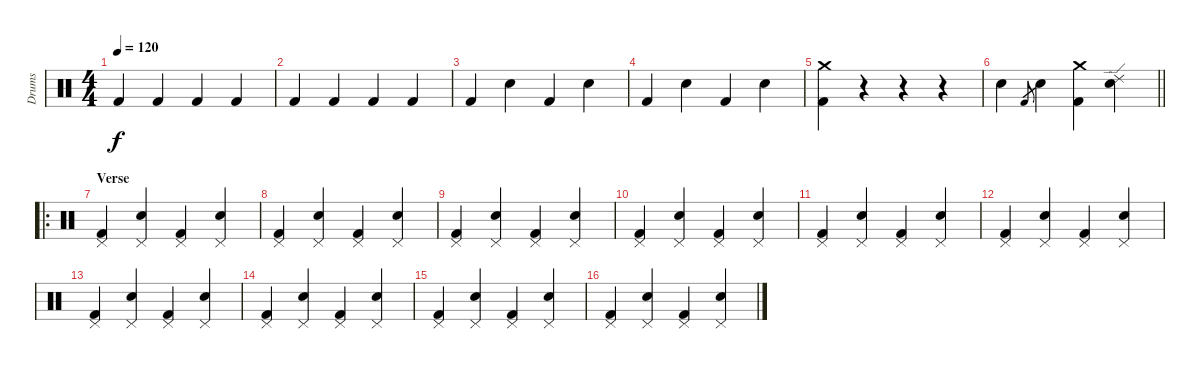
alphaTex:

\track ("Drums" "Drums") {instrument percussion}
\staff {score}
\articulation defaults
\ts (4 4)
\tempo 120
\clef neutral
\ks c "Kick (hit) 2".4{dy f} "Kick (hit) 2".4 "Kick (hit) 2".4 "Kick (hit) 2".4
|
"Kick (hit) 2".4 "Kick (hit) 2".4 "Kick (hit) 2".4 "Kick (hit) 2".4 |
"Kick (hit) 2".4 "Snare (hit) 2".4 "Kick (hit) 2".4 "Snare (hit) 2".4 |
"Kick (hit) 2".4 "Snare (hit) 2".4 "Kick (hit) 2".4 "Snare (hit) 2".4 |
("Kick (hit) 2" "Crash medium (hit)").4 r.4 r.4 r.4 |
\barLineRight lightlight "Snare (hit) 2".4 "Kick (hit) 2".8{gr} "Snare (hit) 2".4
("Kick (hit) 2" "Crash medium (hit)").4 ("Snare (hit) 2" "Ride (edge) 2").4 |
\ro
\section ("" "Verse")
("Kick (hit) 2" "Pedal Hi-Hat (hit)").4 ("Snare (hit) 2" "Pedal Hi-Hat (hit)").4 ("Kick (hit) 2" "Pedal Hi-Hat (hit)").4 ("Snare (hit) 2" "Pedal Hi-Hat (hit)").4 |
("Kick (hit) 2" "Pedal Hi-Hat (hit)").4 ("Snare (hit) 2" "Pedal Hi-Hat (hit)").4 ("Kick (hit) 2" "Pedal Hi-Hat (hit)").4 ("Snare (hit) 2" "Pedal Hi-Hat (hit)").4 |
("Kick (hit) 2" "Pedal Hi-Hat (hit)").4 ("Snare (hit) 2" "Pedal Hi-Hat (hit)").4 ("Kick (hit) 2" "Pedal Hi-Hat (hit)").4 ("Snare (hit) 2" "Pedal Hi-Hat (hit)").4 |
("Kick (hit) 2" "Pedal Hi-Hat (hit)").4 ("Snare (hit) 2" "Pedal Hi-Hat (hit)").4 ("Kick (hit) 2" "Pedal Hi-Hat (hit)").4 ("Snare (hit) 2" "Pedal Hi-Hat (hit)").4 |
("Kick (hit) 2" "Pedal Hi-Hat (hit)").4 ("Snare (hit) 2" "Pedal Hi-Hat (hit)").4 ("Kick (hit) 2" "Pedal Hi-Hat (hit)").4 ("Snare (hit) 2" "Pedal Hi-Hat (hit)").4 |
("Kick (hit) 2" "Pedal Hi-Hat (hit)").4 ("Snare (hit) 2" "Pedal Hi-Hat (hit)").4 ("Kick (hit) 2" "Pedal Hi-Hat (hit)").4 ("Snare (hit) 2" "Pedal Hi-Hat (hit)").4 |
("Kick (hit) 2" "Pedal Hi-Hat (hit)").4 ("Snare (hit) 2" "Pedal Hi-Hat (hit)").4 ("Kick (hit) 2" "Pedal Hi-Hat (hit)").4 ("Snare (hit) 2" "Pedal Hi-Hat (hit)").4 |
("Kick (hit) 2" "Pedal Hi-Hat (hit)").4 ("Snare (hit) 2" "Pedal Hi-Hat (hit)").4 ("Kick (hit) 2" "Pedal Hi-Hat (hit)").4 ("Snare (hit) 2" "Pedal Hi-Hat (hit)").4 |
("Kick (hit) 2" "Pedal Hi-Hat (hit)").4 ("Snare (hit) 2" "Pedal Hi-Hat (hit)").4 ("Kick (hit) 2" "Pedal Hi-Hat (hit)").4 ("Snare (hit) 2" "Pedal Hi-Hat (hit)").4 |
("Kick (hit) 2" "Pedal Hi-Hat (hit)").4 ("Snare (hit) 2" "Pedal Hi-Hat (hit)").4 ("Kick (hit) 2" "Pedal Hi-Hat (hit)").4 ("Snare (hit) 2" "Pedal Hi-Hat (hit)").4
